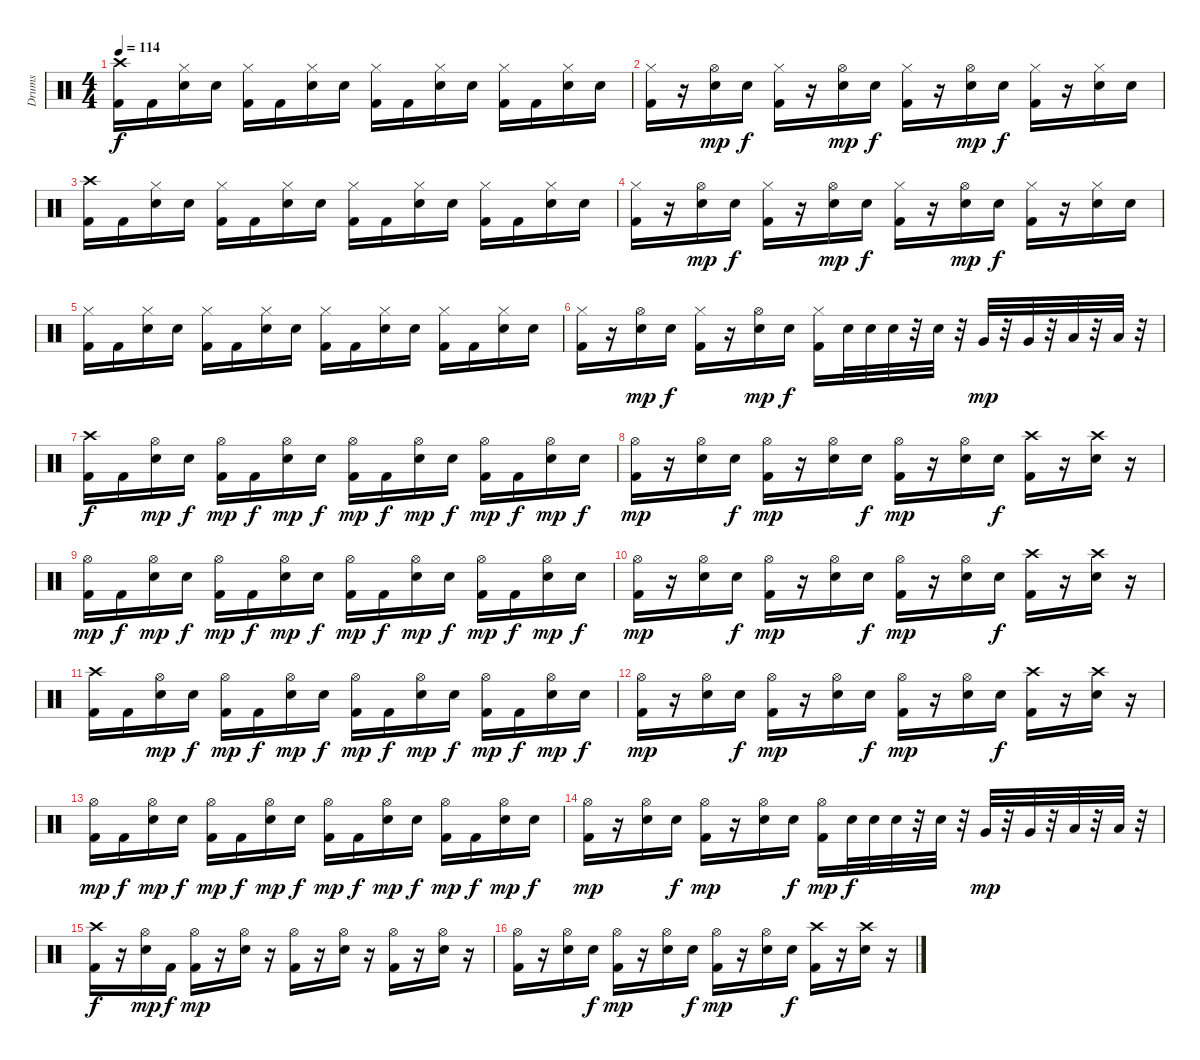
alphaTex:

\track ("Drums" "Drums") {instrument percussion}
\staff {score}
\articulation defaults
\ts (4 4)
\tempo 114
\clef neutral
\ks c
("Crash high (hit)" "Kick (hit) 2").16{dy f} "Kick (hit) 2".16 ("Hi-Hat (closed)" "Electric Snare (hit)").16 "Electric Snare (hit)".16 ("Hi-Hat (closed)" "Kick (hit) 2").16 "Kick (hit) 2".16 ("Hi-Hat (closed)" "Electric Snare (hit)").16 "Electric Snare (hit)".16 ("Hi-Hat (closed)" "Kick (hit) 2").16 "Kick (hit) 2".16 ("Hi-Hat (closed)" "Electric Snare (hit)").16 "Electric Snare (hit)".16 ("Hi-Hat (closed)" "Kick (hit) 2").16 "Kick (hit) 2".16 ("Hi-Hat (closed)" "Electric Snare (hit)").16 "Electric Snare (hit)".16 |
("Hi-Hat (closed)" "Kick (hit) 2").16 r.16 ("Hi-Hat (open)" "Electric Snare (hit)").16{dy mp} "Electric Snare (hit)".16{dy f} ("Hi-Hat (closed)" "Kick (hit) 2").16 r.16 ("Hi-Hat (open)" "Electric Snare (hit)").16{dy mp} "Electric Snare (hit)".16{dy f} ("Hi-Hat (closed)" "Kick (hit) 2").16 r.16 ("Hi-Hat (open)" "Electric Snare (hit)").16{dy mp} "Electric Snare (hit)".16{dy f} ("Hi-Hat (closed)" "Kick (hit) 2").16 r.16 ("Hi-Hat (closed)" "Electric Snare (hit)").16 "Electric Snare (hit)".16 |
("Crash high (hit)" "Kick (hit) 2").16 "Kick (hit) 2".16 ("Hi-Hat (closed)" "Electric Snare (hit)").16 "Electric Snare (hit)".16 ("Hi-Hat (closed)" "Kick (hit) 2").16 "Kick (hit) 2".16 ("Hi-Hat (closed)" "Electric Snare (hit)").16 "Electric Snare (hit)".16 ("Hi-Hat (closed)" "Kick (hit) 2").16 "Kick (hit) 2".16 ("Hi-Hat (closed)" "Electric Snare (hit)").16 "Electric Snare (hit)".16 ("Hi-Hat (closed)" "Kick (hit) 2").16 "Kick (hit) 2".16 ("Hi-Hat (closed)" "Electric Snare (hit)").16 "Electric Snare (hit)".16 |
("Hi-Hat (closed)" "Kick (hit) 2").16 r.16 ("Hi-Hat (open)" "Electric Snare (hit)").16{dy mp} "Electric Snare (hit)".16{dy f} ("Hi-Hat (closed)" "Kick (hit) 2").16 r.16 ("Hi-Hat (open)" "Electric Snare (hit)").16{dy mp} "Electric Snare (hit)".16{dy f} ("Hi-Hat (closed)" "Kick (hit) 2").16 r.16 ("Hi-Hat (open)" "Electric Snare (hit)").16{dy mp} "Electric Snare (hit)".16{dy f} ("Hi-Hat (closed)" "Kick (hit) 2").16 r.16 ("Hi-Hat (closed)" "Electric Snare (hit)").16 "Electric Snare (hit)".16 |
("Hi-Hat (closed)" "Kick (hit) 2").16 "Kick (hit) 2".16 ("Hi-Hat (closed)" "Electric Snare (hit)").16 "Electric Snare (hit)".16 ("Hi-Hat (closed)" "Kick (hit) 2").16 "Kick (hit) 2".16 ("Hi-Hat (closed)" "Electric Snare (hit)").16 "Electric Snare (hit)".16 ("Hi-Hat (closed)" "Kick (hit) 2").16 "Kick (hit) 2".16 ("Hi-Hat (closed)" "Electric Snare (hit)").16 "Electric Snare (hit)".16 ("Hi-Hat (closed)" "Kick (hit) 2").16 "Kick (hit) 2".16 ("Hi-Hat (closed)" "Electric Snare (hit)").16 "Electric Snare (hit)".16 |
("Hi-Hat (closed)" "Kick (hit) 2").16 r.16 ("Hi-Hat (open)" "Electric Snare (hit)").16{dy mp} "Electric Snare (hit)".16{dy f} ("Hi-Hat (closed)" "Kick (hit) 2").16 r.16 ("Hi-Hat (open)" "Electric Snare (hit)").16{dy mp} "Electric Snare (hit)".16{dy f} ("Hi-Hat (closed)" "Kick (hit) 2").16 "Electric Snare (hit)".32 "Electric Snare (hit)".32 "Electric Snare (hit)".32 r.32 "Electric Snare (hit)".32 r.32 "Very Low Tom (hit)".32{dy mp} r.32 "Very Low Tom (hit)".32 r.32 "Low Floor Tom (hit)".32 r.32 "Low Floor Tom (hit)".32 r.32 |
("Crash high (hit)" "Kick (hit) 2").16{dy f} "Kick (hit) 2".16 ("Hi-Hat (open)" "Electric Snare (hit)").16{dy mp} "Electric Snare (hit)".16{dy f} ("Hi-Hat (open)" "Kick (hit) 2").16{dy mp} "Kick (hit) 2".16{dy f} ("Hi-Hat (open)" "Electric Snare (hit)").16{dy mp} "Electric Snare (hit)".16{dy f} ("Hi-Hat (open)" "Kick (hit) 2").16{dy mp} "Kick (hit) 2".16{dy f} ("Hi-Hat (open)" "Electric Snare (hit)").16{dy mp} "Electric Snare (hit)".16{dy f} ("Hi-Hat (open)" "Kick (hit) 2").16{dy mp} "Kick (hit) 2".16{dy f} ("Hi-Hat (open)" "Electric Snare (hit)").16{dy mp} "Electric Snare (hit)".16{dy f} |
("Hi-Hat (open)" "Kick (hit) 2").16{dy mp} r.16 ("Hi-Hat (open)" "Electric Snare (hit)").16 "Electric Snare (hit)".16{dy f} ("Hi-Hat (open)" "Kick (hit) 2").16{dy mp} r.16 ("Hi-Hat (open)" "Electric Snare (hit)").16 "Electric Snare (hit)".16{dy f} ("Hi-Hat (open)" "Kick (hit) 2").16{dy mp} r.16 ("Hi-Hat (open)" "Electric Snare (hit)").16 "Electric Snare (hit)".16{dy f} ("Crash high (hit)" "Kick (hit) 2").16 r.16 ("Crash high (hit)" "Electric Snare (hit)").16 r.16 |
("Hi-Hat (open)" "Kick (hit) 2").16{dy mp} "Kick (hit) 2".16{dy f} ("Hi-Hat (open)" "Electric Snare (hit)").16{dy mp} "Electric Snare (hit)".16{dy f} ("Hi-Hat (open)" "Kick (hit) 2").16{dy mp} "Kick (hit) 2".16{dy f} ("Hi-Hat (open)" "Electric Snare (hit)").16{dy mp} "Electric Snare (hit)".16{dy f} ("Hi-Hat (open)" "Kick (hit) 2").16{dy mp} "Kick (hit) 2".16{dy f} ("Hi-Hat (open)" "Electric Snare (hit)").16{dy mp} "Electric Snare (hit)".16{dy f} ("Hi-Hat (open)" "Kick (hit) 2").16{dy mp} "Kick (hit) 2".16{dy f} ("Hi-Hat (open)" "Electric Snare (hit)").16{dy mp} "Electric Snare (hit)".16{dy f} |
("Hi-Hat (open)" "Kick (hit) 2").16{dy mp} r.16 ("Hi-Hat (open)" "Electric Snare (hit)").16 "Electric Snare (hit)".16{dy f} ("Hi-Hat (open)" "Kick (hit) 2").16{dy mp} r.16 ("Hi-Hat (open)" "Electric Snare (hit)").16 "Electric Snare (hit)".16{dy f} ("Hi-Hat (open)" "Kick (hit) 2").16{dy mp} r.16 ("Hi-Hat (open)" "Electric Snare (hit)").16 "Electric Snare (hit)".16{dy f} ("Crash high (hit)" "Kick (hit) 2").16 r.16 ("Crash high (hit)" "Electric Snare (hit)").16 r.16 |
("Crash high (hit)" "Kick (hit) 2").16 "Kick (hit) 2".16 ("Hi-Hat (open)" "Electric Snare (hit)").16{dy mp} "Electric Snare (hit)".16{dy f} ("Hi-Hat (open)" "Kick (hit) 2").16{dy mp} "Kick (hit) 2".16{dy f} ("Hi-Hat (open)" "Electric Snare (hit)").16{dy mp} "Electric Snare (hit)".16{dy f} ("Hi-Hat (open)" "Kick (hit) 2").16{dy mp} "Kick (hit) 2".16{dy f} ("Hi-Hat (open)" "Electric Snare (hit)").16{dy mp} "Electric Snare (hit)".16{dy f} ("Hi-Hat (open)" "Kick (hit) 2").16{dy mp} "Kick (hit) 2".16{dy f} ("Hi-Hat (open)" "Electric Snare (hit)").16{dy mp} "Electric Snare (hit)".16{dy f} |
("Hi-Hat (open)" "Kick (hit) 2").16{dy mp} r.16 ("Hi-Hat (open)" "Electric Snare (hit)").16 "Electric Snare (hit)".16{dy f} ("Hi-Hat (open)" "Kick (hit) 2").16{dy mp} r.16 ("Hi-Hat (open)" "Electric Snare (hit)").16 "Electric Snare (hit)".16{dy f} ("Hi-Hat (open)" "Kick (hit) 2").16{dy mp} r.16 ("Hi-Hat (open)" "Electric Snare (hit)").16 "Electric Snare (hit)".16{dy f} ("Crash high (hit)" "Kick (hit) 2").16 r.16 ("Crash high (hit)" "Electric Snare (hit)").16 r.16 |
("Hi-Hat (open)" "Kick (hit) 2").16{dy mp} "Kick (hit) 2".16{dy f} ("Hi-Hat (open)" "Electric Snare (hit)").16{dy mp} "Electric Snare (hit)".16{dy f} ("Hi-Hat (open)" "Kick (hit) 2").16{dy mp} "Kick (hit) 2".16{dy f} ("Hi-Hat (open)" "Electric Snare (hit)").16{dy mp} "Electric Snare (hit)".16{dy f} ("Hi-Hat (open)" "Kick (hit) 2").16{dy mp} "Kick (hit) 2".16{dy f} ("Hi-Hat (open)" "Electric Snare (hit)").16{dy mp} "Electric Snare (hit)".16{dy f} ("Hi-Hat (open)" "Kick (hit) 2").16{dy mp} "Kick (hit) 2".16{dy f} ("Hi-Hat (open)" "Electric Snare (hit)").16{dy mp} "Electric Snare (hit)".16{dy f} |
("Hi-Hat (open)" "Kick (hit) 2").16{dy mp} r.16 ("Hi-Hat (open)" "Electric Snare (hit)").16 "Electric Snare (hit)".16{dy f} ("Hi-Hat (open)" "Kick (hit) 2").16{dy mp} r.16 ("Hi-Hat (open)" "Electric Snare (hit)").16 "Electric Snare (hit)".16{dy f} ("Hi-Hat (open)" "Kick (hit) 2").16{dy mp} "Electric Snare (hit)".32{dy f} "Electric Snare (hit)".32 "Electric Snare (hit)".32 r.32 "Electric Snare (hit)".32 r.32 "Very Low Tom (hit)".32{dy mp} r.32 "Very Low Tom (hit)".32 r.32 "Low Floor Tom (hit)".32 r.32 "Low Floor Tom (hit)".32 r.32 |
("Crash high (hit)" "Kick (hit) 2").16{dy f} r.16 ("Hi-Hat (open)" "Electric Snare (hit)").16{dy mp} "Kick (hit) 2".16{dy f} ("Hi-Hat (open)" "Kick (hit) 2").16{dy mp} r.16 ("Hi-Hat (open)" "Electric Snare (hit)").16 r.16 ("Hi-Hat (open)" "Kick (hit) 2").16 r.16 ("Hi-Hat (open)" "Electric Snare (hit)").16 r.16 ("Hi-Hat (open)" "Kick (hit) 2").16 r.16 ("Hi-Hat (open)" "Electric Snare (hit)").16 r.16 |
("Hi-Hat (open)" "Kick (hit) 2").16 r.16 ("Hi-Hat (open)" "Electric Snare (hit)").16 "Electric Snare (hit)".16{dy f} ("Hi-Hat (open)" "Kick (hit) 2").16{dy mp} r.16 ("Hi-Hat (open)" "Electric Snare (hit)").16 "Electric Snare (hit)".16{dy f} ("Hi-Hat (open)" "Kick (hit) 2").16{dy mp} r.16 ("Hi-Hat (open)" "Electric Snare (hit)").16 "Electric Snare (hit)".16{dy f} ("Crash high (hit)" "Kick (hit) 2").16 r.16 ("Crash high (hit)" "Electric Snare (hit)").16 r.16
